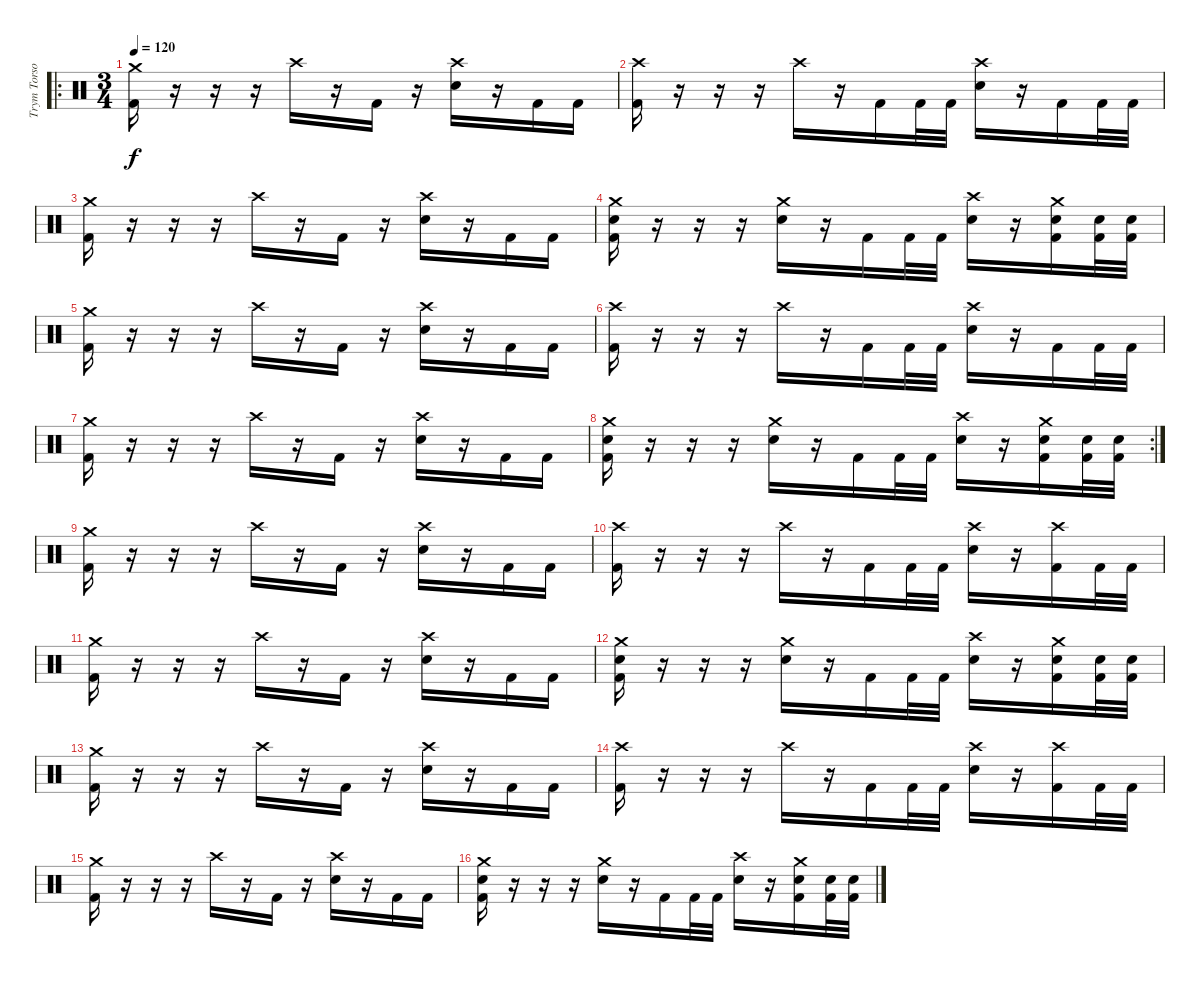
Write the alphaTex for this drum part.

\track ("Trym Torson" "Trym Torso") {instrument percussion}
\staff {score}
\articulation defaults
\ro
\ts (3 4)
\tempo 120
\clef neutral
\ks c
("Crash medium (hit)" "Kick (hit) 2").16{dy f} r.16 r.16 r.16 "Crash high (hit)".16 r.16 "Kick (hit) 2".16 r.16 ("Crash high (hit)" "Snare (hit) 2").16 r.16 "Kick (hit) 2".16 "Kick (hit) 2".16 |
("Crash high (hit)" "Kick (hit) 2").16 r.16 r.16 r.16 "Crash high (hit)".16 r.16 "Kick (hit) 2".16 "Kick (hit) 2".32 "Kick (hit) 2".32 ("Crash high (hit)" "Snare (hit) 2").16 r.16 "Kick (hit) 2".16 "Kick (hit) 2".32 "Kick (hit) 2".32 |
("Crash medium (hit)" "Kick (hit) 2").16 r.16 r.16 r.16 "Crash high (hit)".16 r.16 "Kick (hit) 2".16 r.16 ("Crash high (hit)" "Snare (hit) 2").16 r.16 "Kick (hit) 2".16 "Kick (hit) 2".16 |
("Crash medium (hit)" "Snare (hit) 2" "Kick (hit) 2").16 r.16 r.16 r.16 ("Crash medium (hit)" "Snare (hit) 2").16 r.16 "Kick (hit) 2".16 "Kick (hit) 2".32 "Kick (hit) 2".32 ("Crash high (hit)" "Snare (hit) 2").16 r.16 ("Crash medium (hit)" "Snare (hit) 2" "Kick (hit) 2").16 ("Snare (hit) 2" "Kick (hit) 2").32 ("Snare (hit) 2" "Kick (hit) 2").32 |
("Crash medium (hit)" "Kick (hit) 2").16 r.16 r.16 r.16 "Crash high (hit)".16 r.16 "Kick (hit) 2".16 r.16 ("Crash high (hit)" "Snare (hit) 2").16 r.16 "Kick (hit) 2".16 "Kick (hit) 2".16 |
("Crash high (hit)" "Kick (hit) 2").16 r.16 r.16 r.16 "Crash high (hit)".16 r.16 "Kick (hit) 2".16 "Kick (hit) 2".32 "Kick (hit) 2".32 ("Crash high (hit)" "Snare (hit) 2").16 r.16 "Kick (hit) 2".16 "Kick (hit) 2".32 "Kick (hit) 2".32 |
("Crash medium (hit)" "Kick (hit) 2").16 r.16 r.16 r.16 "Crash high (hit)".16 r.16 "Kick (hit) 2".16 r.16 ("Crash high (hit)" "Snare (hit) 2").16 r.16 "Kick (hit) 2".16 "Kick (hit) 2".16 |
\rc 2
("Crash medium (hit)" "Snare (hit) 2" "Kick (hit) 2").16 r.16 r.16 r.16 ("Crash medium (hit)" "Snare (hit) 2").16 r.16 "Kick (hit) 2".16 "Kick (hit) 2".32 "Kick (hit) 2".32 ("Crash high (hit)" "Snare (hit) 2").16 r.16 ("Crash medium (hit)" "Snare (hit) 2" "Kick (hit) 2").16 ("Snare (hit) 2" "Kick (hit) 2").32 ("Snare (hit) 2" "Kick (hit) 2").32 |
("Crash medium (hit)" "Kick (hit) 2").16 r.16 r.16 r.16 "Crash high (hit)".16 r.16 "Kick (hit) 2".16 r.16 ("Crash high (hit)" "Snare (hit) 2").16 r.16 "Kick (hit) 2".16 "Kick (hit) 2".16 |
("Crash high (hit)" "Kick (hit) 2").16 r.16 r.16 r.16 "Crash high (hit)".16 r.16 "Kick (hit) 2".16 "Kick (hit) 2".32 "Kick (hit) 2".32 ("Crash high (hit)" "Snare (hit) 2").16 r.16 ("Crash high (hit)" "Kick (hit) 2").16 "Kick (hit) 2".32 "Kick (hit) 2".32 |
("Crash medium (hit)" "Kick (hit) 2").16 r.16 r.16 r.16 "Crash high (hit)".16 r.16 "Kick (hit) 2".16 r.16 ("Crash high (hit)" "Snare (hit) 2").16 r.16 "Kick (hit) 2".16 "Kick (hit) 2".16 |
("Crash medium (hit)" "Snare (hit) 2" "Kick (hit) 2").16 r.16 r.16 r.16 ("Crash medium (hit)" "Snare (hit) 2").16 r.16 "Kick (hit) 2".16 "Kick (hit) 2".32 "Kick (hit) 2".32 ("Crash high (hit)" "Snare (hit) 2").16 r.16 ("Crash medium (hit)" "Snare (hit) 2" "Kick (hit) 2").16 ("Snare (hit) 2" "Kick (hit) 2").32 ("Snare (hit) 2" "Kick (hit) 2").32 |
("Crash medium (hit)" "Kick (hit) 2").16 r.16 r.16 r.16 "Crash high (hit)".16 r.16 "Kick (hit) 2".16 r.16 ("Crash high (hit)" "Snare (hit) 2").16 r.16 "Kick (hit) 2".16 "Kick (hit) 2".16 |
("Crash high (hit)" "Kick (hit) 2").16 r.16 r.16 r.16 "Crash high (hit)".16 r.16 "Kick (hit) 2".16 "Kick (hit) 2".32 "Kick (hit) 2".32 ("Crash high (hit)" "Snare (hit) 2").16 r.16 ("Crash high (hit)" "Kick (hit) 2").16 "Kick (hit) 2".32 "Kick (hit) 2".32 |
("Crash medium (hit)" "Kick (hit) 2").16 r.16 r.16 r.16 "Crash high (hit)".16 r.16 "Kick (hit) 2".16 r.16 ("Crash high (hit)" "Snare (hit) 2").16 r.16 "Kick (hit) 2".16 "Kick (hit) 2".16 |
("Crash medium (hit)" "Snare (hit) 2" "Kick (hit) 2").16 r.16 r.16 r.16 ("Crash medium (hit)" "Snare (hit) 2").16 r.16 "Kick (hit) 2".16 "Kick (hit) 2".32 "Kick (hit) 2".32 ("Crash high (hit)" "Snare (hit) 2").16 r.16 ("Crash medium (hit)" "Snare (hit) 2" "Kick (hit) 2").16 ("Snare (hit) 2" "Kick (hit) 2").32 ("Snare (hit) 2" "Kick (hit) 2").32
